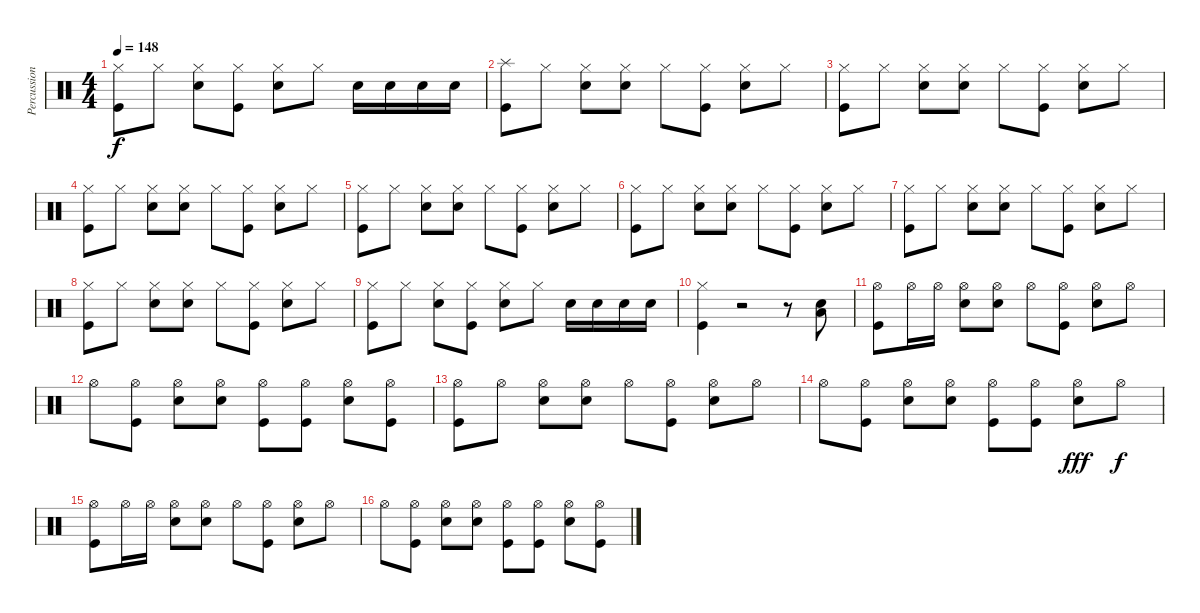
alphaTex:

\track ("Percussion" "Percussion") {instrument percussion}
\staff {score}
\articulation defaults
\ts (4 4)
\tempo 148
\clef neutral
\ks c
("Hi-Hat (closed)" "Kick (hit)").8{dy f} "Hi-Hat (closed)".8 ("Hi-Hat (closed)" "Snare (hit) 2").8 ("Hi-Hat (closed)" "Kick (hit)").8 ("Hi-Hat (closed)" "Snare (hit) 2").8 "Hi-Hat (closed)".8 "Snare (hit) 2".16 "Snare (hit) 2".16 "Snare (hit) 2".16 "Snare (hit) 2".16 |
("Splash (hit)" "Kick (hit)").8 "Hi-Hat (closed)".8 ("Hi-Hat (closed)" "Snare (hit) 2").8 ("Hi-Hat (closed)" "Snare (hit) 2").8 "Hi-Hat (closed)".8 ("Hi-Hat (closed)" "Kick (hit)").8 ("Hi-Hat (closed)" "Snare (hit) 2").8 "Hi-Hat (closed)".8 |
("Hi-Hat (closed)" "Kick (hit)").8 "Hi-Hat (closed)".8 ("Hi-Hat (closed)" "Snare (hit) 2").8 ("Hi-Hat (closed)" "Snare (hit) 2").8 "Hi-Hat (closed)".8 ("Hi-Hat (closed)" "Kick (hit)").8 ("Hi-Hat (closed)" "Snare (hit) 2").8 "Hi-Hat (closed)".8 |
("Hi-Hat (closed)" "Kick (hit)").8 "Hi-Hat (closed)".8 ("Hi-Hat (closed)" "Snare (hit) 2").8 ("Hi-Hat (closed)" "Snare (hit) 2").8 "Hi-Hat (closed)".8 ("Hi-Hat (closed)" "Kick (hit)").8 ("Hi-Hat (closed)" "Snare (hit) 2").8 "Hi-Hat (closed)".8 |
("Hi-Hat (closed)" "Kick (hit)").8 "Hi-Hat (closed)".8 ("Hi-Hat (closed)" "Snare (hit) 2").8 ("Hi-Hat (closed)" "Snare (hit) 2").8 "Hi-Hat (closed)".8 ("Hi-Hat (closed)" "Kick (hit)").8 ("Hi-Hat (closed)" "Snare (hit) 2").8 "Hi-Hat (closed)".8 |
("Hi-Hat (closed)" "Kick (hit)").8 "Hi-Hat (closed)".8 ("Hi-Hat (closed)" "Snare (hit) 2").8 ("Hi-Hat (closed)" "Snare (hit) 2").8 "Hi-Hat (closed)".8 ("Hi-Hat (closed)" "Kick (hit)").8 ("Hi-Hat (closed)" "Snare (hit) 2").8 "Hi-Hat (closed)".8 |
("Hi-Hat (closed)" "Kick (hit)").8 "Hi-Hat (closed)".8 ("Hi-Hat (closed)" "Snare (hit) 2").8 ("Hi-Hat (closed)" "Snare (hit) 2").8 "Hi-Hat (closed)".8 ("Hi-Hat (closed)" "Kick (hit)").8 ("Hi-Hat (closed)" "Snare (hit) 2").8 "Hi-Hat (closed)".8 |
("Hi-Hat (closed)" "Kick (hit)").8 "Hi-Hat (closed)".8 ("Hi-Hat (closed)" "Snare (hit) 2").8 ("Hi-Hat (closed)" "Snare (hit) 2").8 "Hi-Hat (closed)".8 ("Hi-Hat (closed)" "Kick (hit)").8 ("Hi-Hat (closed)" "Snare (hit) 2").8 "Hi-Hat (closed)".8 |
("Hi-Hat (closed)" "Kick (hit)").8 "Hi-Hat (closed)".8 ("Hi-Hat (closed)" "Snare (hit) 2").8 ("Hi-Hat (closed)" "Kick (hit)").8 ("Hi-Hat (closed)" "Snare (hit) 2").8 "Hi-Hat (closed)".8 "Snare (hit) 2".16 "Snare (hit) 2".16 "Snare (hit) 2".16 "Snare (hit) 2".16 |
("Hi-Hat (closed)" "Kick (hit)").4 r.2 r.8 ("Low Tom (hit)" "Snare (hit) 2").8 |
("Hi-Hat (open)" "Kick (hit)").8 "Hi-Hat (open)".16 "Hi-Hat (open)".16 ("Hi-Hat (open)" "Snare (hit) 2").8 ("Hi-Hat (open)" "Snare (hit) 2").8 "Hi-Hat (open)".8 ("Hi-Hat (open)" "Kick (hit)").8 ("Hi-Hat (open)" "Snare (hit) 2").8 "Hi-Hat (open)".8 |
"Hi-Hat (open)".8 ("Hi-Hat (open)" "Kick (hit)").8 ("Hi-Hat (open)" "Snare (hit) 2").8 ("Hi-Hat (open)" "Snare (hit) 2").8 ("Hi-Hat (open)" "Kick (hit)").8 ("Hi-Hat (open)" "Kick (hit)").8 ("Hi-Hat (open)" "Snare (hit) 2").8 ("Hi-Hat (open)" "Kick (hit)").8 |
("Hi-Hat (open)" "Kick (hit)").8 "Hi-Hat (open)".8 ("Hi-Hat (open)" "Snare (hit) 2").8 ("Hi-Hat (open)" "Snare (hit) 2").8 "Hi-Hat (open)".8 ("Hi-Hat (open)" "Kick (hit)").8 ("Hi-Hat (open)" "Snare (hit) 2").8 "Hi-Hat (open)".8 |
"Hi-Hat (open)".8 ("Hi-Hat (open)" "Kick (hit)").8 ("Hi-Hat (open)" "Snare (hit) 2").8 ("Hi-Hat (open)" "Snare (hit) 2").8 ("Hi-Hat (open)" "Kick (hit)").8 ("Hi-Hat (open)" "Kick (hit)").8 ("Hi-Hat (open)" "Snare (hit) 2").8{dy fff} "Hi-Hat (open)".8{dy f} |
("Hi-Hat (open)" "Kick (hit)").8 "Hi-Hat (open)".16 "Hi-Hat (open)".16 ("Hi-Hat (open)" "Snare (hit) 2").8 ("Hi-Hat (open)" "Snare (hit) 2").8 "Hi-Hat (open)".8 ("Hi-Hat (open)" "Kick (hit)").8 ("Hi-Hat (open)" "Snare (hit) 2").8 "Hi-Hat (open)".8 |
"Hi-Hat (open)".8 ("Hi-Hat (open)" "Kick (hit)").8 ("Hi-Hat (open)" "Snare (hit) 2").8 ("Hi-Hat (open)" "Snare (hit) 2").8 ("Hi-Hat (open)" "Kick (hit)").8 ("Hi-Hat (open)" "Kick (hit)").8 ("Hi-Hat (open)" "Snare (hit) 2").8 ("Hi-Hat (open)" "Kick (hit)").8
